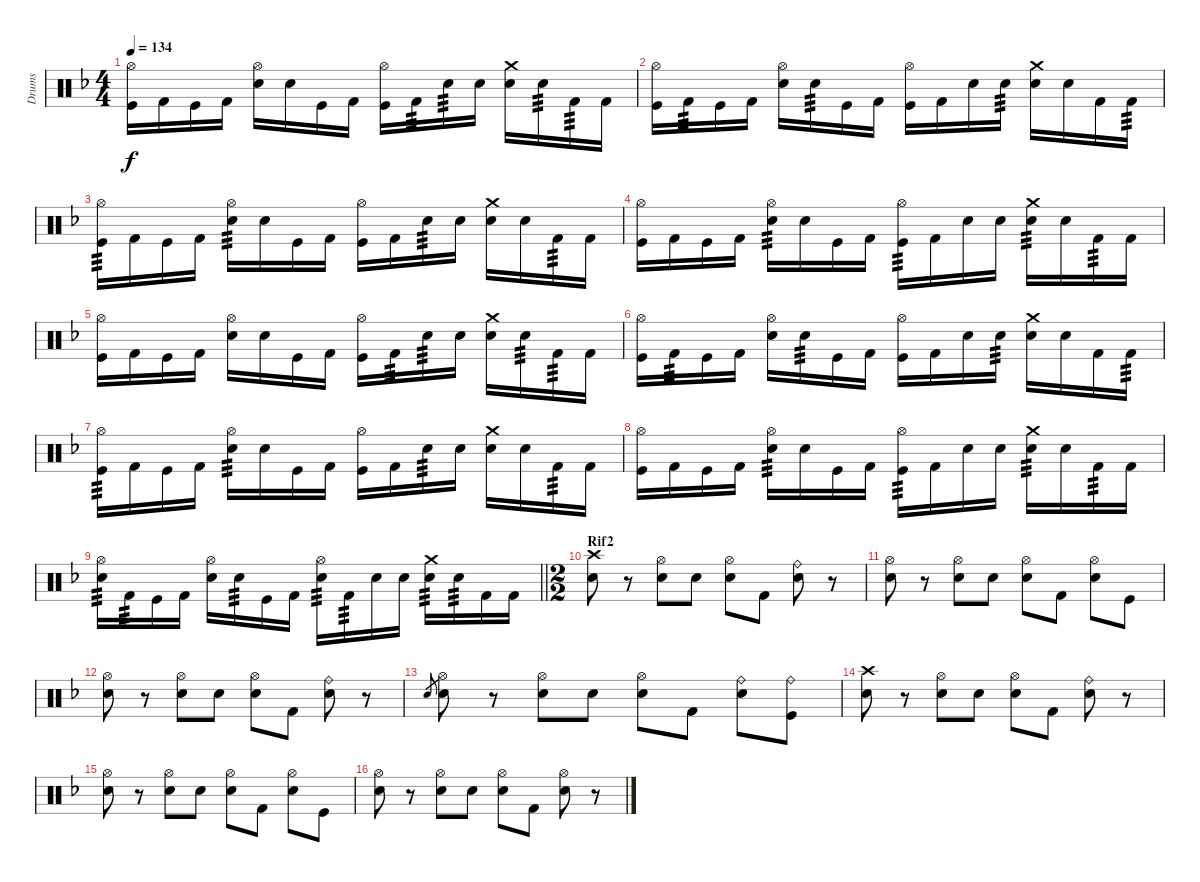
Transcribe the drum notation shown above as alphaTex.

\track ("Drums" "Drums") {instrument percussion}
\staff {score}
\articulation defaults
\ts (4 4)
\tempo 134
\clef neutral
\ks f
("Kick (hit)" "Hi-Hat (open)").16{dy f} "Kick (hit) 2".16 "Kick (hit)".16 "Kick (hit) 2".16 ("Electric Snare (hit)" "Hi-Hat (open)").16 "Electric Snare (hit)".16 "Kick (hit)".16 "Kick (hit) 2".16 ("Kick (hit)" "Hi-Hat (open)").16 "Kick (hit) 2".16{tp 3} "Electric Snare (hit)".16{tp 3} "Electric Snare (hit)".16 ("Electric Snare (hit)" "Crash medium (hit)").16 "Snare (hit) 2".16{tp 3} "Kick (hit) 2".16{tp 3} "Kick (hit) 2".16 |
("Kick (hit)" "Hi-Hat (open)").16 "Kick (hit) 2".16{tp 3} "Kick (hit)".16 "Kick (hit) 2".16 ("Electric Snare (hit)" "Hi-Hat (open)").16 "Electric Snare (hit)".16{tp 3} "Kick (hit)".16 "Kick (hit) 2".16 ("Kick (hit)" "Hi-Hat (open)").16 "Kick (hit) 2".16 "Electric Snare (hit)".16 "Electric Snare (hit)".16{tp 3} ("Electric Snare (hit)" "Crash medium (hit)").16 "Snare (hit) 2".16 "Kick (hit) 2".16 "Kick (hit) 2".16{tp 3} |
("Kick (hit)" "Hi-Hat (open)").16{tp 3} "Kick (hit) 2".16 "Kick (hit)".16 "Kick (hit) 2".16 ("Electric Snare (hit)" "Hi-Hat (open)").16{tp 3} "Electric Snare (hit)".16 "Kick (hit)".16 "Kick (hit) 2".16 ("Kick (hit)" "Hi-Hat (open)").16 "Kick (hit) 2".16 "Electric Snare (hit)".16{tp 3} "Electric Snare (hit)".16 ("Electric Snare (hit)" "Crash medium (hit)").16 "Snare (hit) 2".16 "Kick (hit) 2".16{tp 3} "Kick (hit) 2".16 |
("Kick (hit)" "Hi-Hat (open)").16 "Kick (hit) 2".16 "Kick (hit)".16 "Kick (hit) 2".16 ("Electric Snare (hit)" "Hi-Hat (open)").16{tp 3} "Electric Snare (hit)".16 "Kick (hit)".16 "Kick (hit) 2".16 ("Kick (hit)" "Hi-Hat (open)").16{tp 3} "Kick (hit) 2".16 "Electric Snare (hit)".16 "Electric Snare (hit)".16 ("Electric Snare (hit)" "Crash medium (hit)").16{tp 3} "Snare (hit) 2".16 "Kick (hit) 2".16{tp 3} "Kick (hit) 2".16 |
("Kick (hit)" "Hi-Hat (open)").16 "Kick (hit) 2".16 "Kick (hit)".16 "Kick (hit) 2".16 ("Electric Snare (hit)" "Hi-Hat (open)").16 "Electric Snare (hit)".16 "Kick (hit)".16 "Kick (hit) 2".16 ("Kick (hit)" "Hi-Hat (open)").16 "Kick (hit) 2".16{tp 3} "Electric Snare (hit)".16{tp 3} "Electric Snare (hit)".16 ("Electric Snare (hit)" "Crash medium (hit)").16 "Snare (hit) 2".16{tp 3} "Kick (hit) 2".16{tp 3} "Kick (hit) 2".16 |
("Kick (hit)" "Hi-Hat (open)").16 "Kick (hit) 2".16{tp 3} "Kick (hit)".16 "Kick (hit) 2".16 ("Electric Snare (hit)" "Hi-Hat (open)").16 "Electric Snare (hit)".16{tp 3} "Kick (hit)".16 "Kick (hit) 2".16 ("Kick (hit)" "Hi-Hat (open)").16 "Kick (hit) 2".16 "Electric Snare (hit)".16 "Electric Snare (hit)".16{tp 3} ("Electric Snare (hit)" "Crash medium (hit)").16 "Snare (hit) 2".16 "Kick (hit) 2".16 "Kick (hit) 2".16{tp 3} |
("Kick (hit)" "Hi-Hat (open)").16{tp 3} "Kick (hit) 2".16 "Kick (hit)".16 "Kick (hit) 2".16 ("Electric Snare (hit)" "Hi-Hat (open)").16{tp 3} "Electric Snare (hit)".16 "Kick (hit)".16 "Kick (hit) 2".16 ("Kick (hit)" "Hi-Hat (open)").16 "Kick (hit) 2".16 "Electric Snare (hit)".16{tp 3} "Electric Snare (hit)".16 ("Electric Snare (hit)" "Crash medium (hit)").16 "Snare (hit) 2".16 "Kick (hit) 2".16{tp 3} "Kick (hit) 2".16 |
("Kick (hit)" "Hi-Hat (open)").16 "Kick (hit) 2".16 "Kick (hit)".16 "Kick (hit) 2".16 ("Electric Snare (hit)" "Hi-Hat (open)").16{tp 3} "Electric Snare (hit)".16 "Kick (hit)".16 "Kick (hit) 2".16 ("Kick (hit)" "Hi-Hat (open)").16{tp 3} "Kick (hit) 2".16 "Electric Snare (hit)".16 "Electric Snare (hit)".16 ("Electric Snare (hit)" "Crash medium (hit)").16{tp 3} "Snare (hit) 2".16 "Kick (hit) 2".16{tp 3} "Kick (hit) 2".16 |
\barLineRight lightlight
("Electric Snare (hit)" "Hi-Hat (open)").16{tp 3} "Kick (hit) 2".16{tp 3} "Kick (hit)".16 "Kick (hit) 2".16 ("Electric Snare (hit)" "Hi-Hat (open)").16 "Electric Snare (hit)".16{tp 3} "Kick (hit)".16 "Kick (hit) 2".16 ("Electric Snare (hit)" "Hi-Hat (open)").16{tp 3} "Kick (hit) 2".16{tp 3} "Electric Snare (hit)".16 "Electric Snare (hit)".16 ("Electric Snare (hit)" "Crash medium (hit)").16{tp 3} "Snare (hit) 2".16{tp 3} "Kick (hit) 2".16 "Kick (hit) 2".16 |
\ts (2 2)
\section ("" "Rif2")
("Snare (hit) 2" "Crash high (hit)").8 r.8 ("Snare (hit) 2" "Hi-Hat (open)").8 "Electric Snare (hit)".8 ("Snare (hit) 2" "Hi-Hat (open)").8 "Kick (hit) 2".8 ("Snare (hit) 2" "Ride (bell)").8 r.8 |
("Snare (hit) 2" "Hi-Hat (open)").8 r.8 ("Snare (hit) 2" "Hi-Hat (open)").8 "Electric Snare (hit)".8 ("Snare (hit) 2" "Hi-Hat (open)").8 "Kick (hit) 2".8 ("Snare (hit) 2" "Hi-Hat (open)").8 "Kick (hit)".8 |
("Snare (hit) 2" "Hi-Hat (open)").8 r.8 ("Snare (hit) 2" "Hi-Hat (open)").8 "Electric Snare (hit)".8 ("Snare (hit) 2" "Hi-Hat (open)").8 "Kick (hit) 2".8 ("Snare (hit) 2" "Ride (bell)").8 r.8 |
"Snare (hit) 2".8{gr} ("Snare (hit) 2" "Hi-Hat (open)").8 r.8 ("Snare (hit) 2" "Hi-Hat (open)").8 "Electric Snare (hit)".8 ("Snare (hit) 2" "Hi-Hat (open)").8 "Kick (hit) 2".8 ("Snare (hit) 2" "Ride (bell)").8 ("Kick (hit)" "Ride (bell)").8 |
("Snare (hit) 2" "Crash high (hit)").8 r.8 ("Snare (hit) 2" "Hi-Hat (open)").8 "Electric Snare (hit)".8 ("Snare (hit) 2" "Hi-Hat (open)").8 "Kick (hit) 2".8 ("Snare (hit) 2" "Ride (bell)").8 r.8 |
("Snare (hit) 2" "Hi-Hat (open)").8 r.8 ("Snare (hit) 2" "Hi-Hat (open)").8 "Electric Snare (hit)".8 ("Snare (hit) 2" "Hi-Hat (open)").8 "Kick (hit) 2".8 ("Snare (hit) 2" "Hi-Hat (open)").8 "Kick (hit)".8 |
("Snare (hit) 2" "Hi-Hat (open)").8 r.8 ("Snare (hit) 2" "Hi-Hat (open)").8 "Electric Snare (hit)".8 ("Snare (hit) 2" "Hi-Hat (open)").8 "Kick (hit) 2".8 ("Snare (hit) 2" "Hi-Hat (open)").8 r.8
